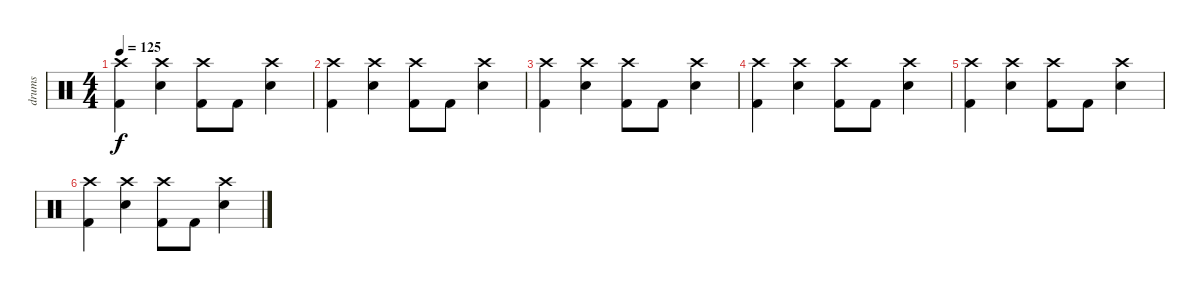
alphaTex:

\track ("drums" "drums") {instrument percussion}
\staff {score}
\articulation defaults
\ts (4 4)
\tempo 125
\clef neutral
\ks c
("Crash high (hit)" "Kick (hit) 2").4{dy f} ("Crash high (hit)" "Snare (hit) 2").4 ("Crash high (hit)" "Kick (hit) 2").8 "Kick (hit) 2".8 ("Crash high (hit)" "Snare (hit) 2").4 |
("Crash high (hit)" "Kick (hit) 2").4 ("Crash high (hit)" "Snare (hit) 2").4 ("Crash high (hit)" "Kick (hit) 2").8 "Kick (hit) 2".8 ("Crash high (hit)" "Snare (hit) 2").4 |
("Crash high (hit)" "Kick (hit) 2").4 ("Crash high (hit)" "Snare (hit) 2").4 ("Crash high (hit)" "Kick (hit) 2").8 "Kick (hit) 2".8 ("Crash high (hit)" "Snare (hit) 2").4 |
("Crash high (hit)" "Kick (hit) 2").4 ("Crash high (hit)" "Snare (hit) 2").4 ("Crash high (hit)" "Kick (hit) 2").8 "Kick (hit) 2".8 ("Crash high (hit)" "Snare (hit) 2").4 |
("Crash high (hit)" "Kick (hit) 2").4 ("Crash high (hit)" "Snare (hit) 2").4 ("Crash high (hit)" "Kick (hit) 2").8 "Kick (hit) 2".8 ("Crash high (hit)" "Snare (hit) 2").4 |
("Crash high (hit)" "Kick (hit) 2").4 ("Crash high (hit)" "Snare (hit) 2").4 ("Crash high (hit)" "Kick (hit) 2").8 "Kick (hit) 2".8 ("Crash high (hit)" "Snare (hit) 2").4
